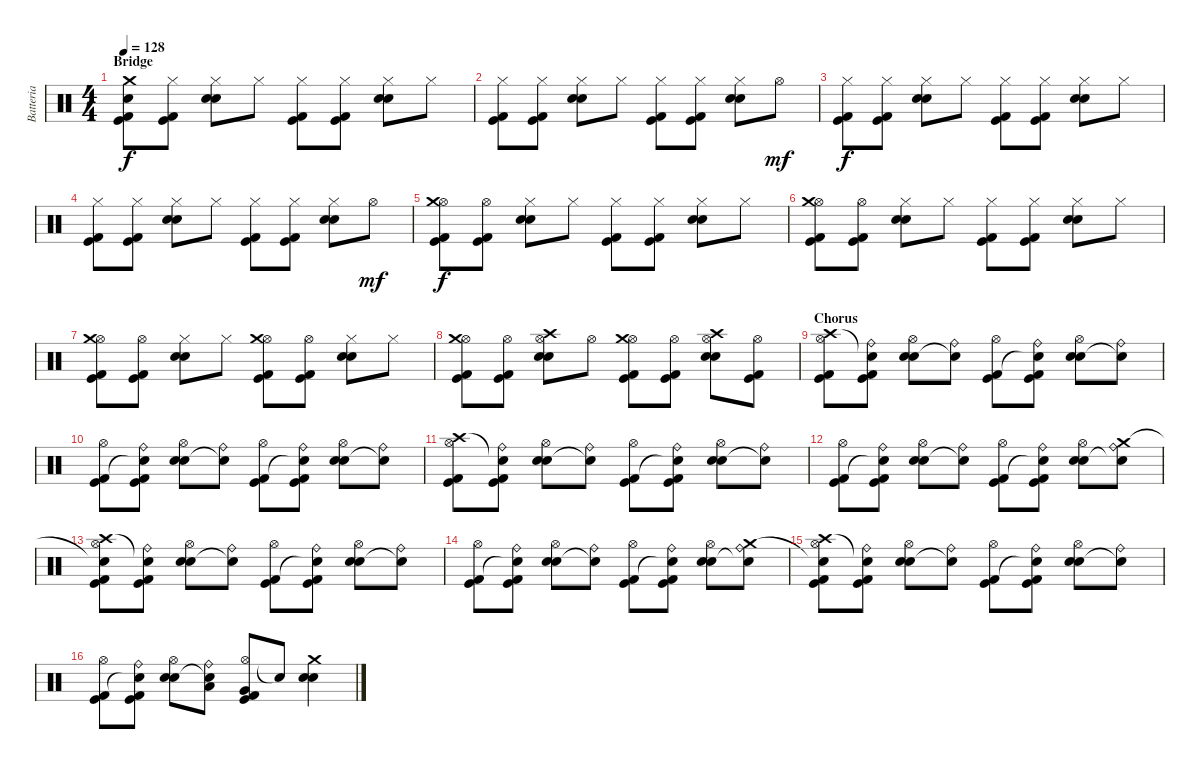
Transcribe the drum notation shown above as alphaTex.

\track ("Batteria" "Batteria") {instrument percussion}
\staff {score}
\articulation defaults
\ts (4 4)
\section ("" "Bridge")
\tempo 128
\clef neutral
\ks c
("Crash medium (hit)" "Snare (hit)"{t} "Kick (hit) 2" "Kick (hit)").8{dy f} ("Hi-Hat (closed)" "Kick (hit) 2" "Kick (hit)").8 ("Hi-Hat (closed)" "Electric Snare (hit)" "Electric Snare (hit)").8 "Hi-Hat (closed)".8 ("Hi-Hat (closed)" "Kick (hit) 2" "Kick (hit)").8 ("Hi-Hat (closed)" "Kick (hit) 2" "Kick (hit)").8 ("Hi-Hat (closed)" "Electric Snare (hit)" "Electric Snare (hit)").8 "Hi-Hat (closed)".8 |
("Hi-Hat (closed)" "Kick (hit) 2" "Kick (hit)").8 ("Hi-Hat (closed)" "Kick (hit) 2" "Kick (hit)").8 ("Hi-Hat (closed)" "Electric Snare (hit)" "Electric Snare (hit)").8 "Hi-Hat (closed)".8 ("Hi-Hat (closed)" "Kick (hit) 2" "Kick (hit)").8 ("Hi-Hat (closed)" "Kick (hit) 2" "Kick (hit)").8 ("Hi-Hat (closed)" "Electric Snare (hit)" "Electric Snare (hit)").8 "Hi-Hat (open)".8{dy mf} |
("Hi-Hat (closed)" "Kick (hit) 2" "Kick (hit)").8{dy f} ("Hi-Hat (closed)" "Kick (hit) 2" "Kick (hit)").8 ("Hi-Hat (closed)" "Electric Snare (hit)" "Electric Snare (hit)").8 "Hi-Hat (closed)".8 ("Hi-Hat (closed)" "Kick (hit) 2" "Kick (hit)").8 ("Hi-Hat (closed)" "Kick (hit) 2" "Kick (hit)").8 ("Hi-Hat (closed)" "Electric Snare (hit)" "Electric Snare (hit)").8 "Hi-Hat (closed)".8 |
("Hi-Hat (closed)" "Kick (hit) 2" "Kick (hit)").8 ("Hi-Hat (closed)" "Kick (hit) 2" "Kick (hit)").8 ("Hi-Hat (closed)" "Electric Snare (hit)" "Electric Snare (hit)").8 "Hi-Hat (closed)".8 ("Hi-Hat (closed)" "Kick (hit) 2" "Kick (hit)").8 ("Hi-Hat (closed)" "Kick (hit) 2" "Kick (hit)").8 ("Hi-Hat (closed)" "Electric Snare (hit)" "Electric Snare (hit)").8 "Hi-Hat (open)".8{dy mf} |
("Hi-Hat (open)" "Crash medium (hit)" "Kick (hit) 2" "Kick (hit)").8{dy f} ("Hi-Hat (open)" "Kick (hit) 2" "Kick (hit)").8 ("Hi-Hat (closed)" "Electric Snare (hit)" "Electric Snare (hit)").8 "Hi-Hat (closed)".8 ("Hi-Hat (closed)" "Kick (hit) 2" "Kick (hit)").8 ("Hi-Hat (closed)" "Kick (hit) 2" "Kick (hit)").8 ("Hi-Hat (closed)" "Electric Snare (hit)" "Electric Snare (hit)").8 "Hi-Hat (closed)".8 |
("Hi-Hat (open)" "Crash medium (hit)" "Kick (hit) 2" "Kick (hit)").8 ("Hi-Hat (open)" "Kick (hit) 2" "Kick (hit)").8 ("Hi-Hat (closed)" "Electric Snare (hit)" "Electric Snare (hit)").8 "Hi-Hat (closed)".8 ("Hi-Hat (closed)" "Kick (hit) 2" "Kick (hit)").8 ("Hi-Hat (closed)" "Kick (hit) 2" "Kick (hit)").8 ("Hi-Hat (closed)" "Electric Snare (hit)" "Electric Snare (hit)").8 "Hi-Hat (closed)".8 |
("Hi-Hat (open)" "Crash medium (hit)" "Kick (hit) 2" "Kick (hit)").8 ("Hi-Hat (open)" "Kick (hit) 2" "Kick (hit)").8 ("Hi-Hat (closed)" "Electric Snare (hit)" "Electric Snare (hit)").8 "Hi-Hat (closed)".8 ("Hi-Hat (open)" "Crash medium (hit)" "Kick (hit) 2" "Kick (hit)").8 ("Hi-Hat (open)" "Kick (hit) 2" "Kick (hit)").8 ("Hi-Hat (closed)" "Electric Snare (hit)" "Electric Snare (hit)").8 "Hi-Hat (closed)".8 |
("Hi-Hat (open)" "Crash medium (hit)" "Kick (hit) 2" "Kick (hit)").8 ("Hi-Hat (open)" "Kick (hit) 2" "Kick (hit)").8 ("Hi-Hat (open)" "Crash high (hit)" "Electric Snare (hit)" "Electric Snare (hit)").8 "Hi-Hat (open)".8 ("Hi-Hat (open)" "Crash medium (hit)" "Kick (hit) 2" "Kick (hit)").8 ("Hi-Hat (open)" "Kick (hit) 2" "Kick (hit)").8 ("Hi-Hat (open)" "Crash high (hit)" "Electric Snare (hit)" "Electric Snare (hit)").8 ("Hi-Hat (open)" "Kick (hit) 2" "Kick (hit)").8 |
\section ("" "Chorus")
("Hi-Hat (open)" "Crash high (hit)" "Kick (hit) 2" "Kick (hit)").8 ("Ride (bell)" "Snare (hit)"{t} "Kick (hit) 2" "Kick (hit)").8 ("Hi-Hat (open)" "Electric Snare (hit)" "Electric Snare (hit)").8 ("Ride (bell)" "Snare (hit)"{t}).8 ("Hi-Hat (open)" "Kick (hit) 2" "Kick (hit)").8 ("Ride (bell)" "Snare (hit)"{t} "Kick (hit) 2" "Kick (hit)").8 ("Hi-Hat (open)" "Electric Snare (hit)" "Electric Snare (hit)").8 ("Ride (bell)" "Snare (hit)"{t}).8 |
("Hi-Hat (open)" "Kick (hit) 2" "Kick (hit)").8 ("Ride (bell)" "Snare (hit)"{t} "Kick (hit) 2" "Kick (hit)").8 ("Hi-Hat (open)" "Electric Snare (hit)" "Electric Snare (hit)").8 ("Ride (bell)" "Snare (hit)"{t}).8 ("Hi-Hat (open)" "Kick (hit) 2" "Kick (hit)").8 ("Ride (bell)" "Snare (hit)"{t} "Kick (hit) 2" "Kick (hit)").8 ("Hi-Hat (open)" "Electric Snare (hit)" "Electric Snare (hit)").8 ("Ride (bell)" "Snare (hit)"{t}).8 |
("Hi-Hat (open)" "Crash high (hit)" "Kick (hit) 2" "Kick (hit)").8 ("Ride (bell)" "Snare (hit)"{t} "Kick (hit) 2" "Kick (hit)").8 ("Hi-Hat (open)" "Electric Snare (hit)" "Electric Snare (hit)").8 ("Ride (bell)" "Snare (hit)"{t}).8 ("Hi-Hat (open)" "Kick (hit) 2" "Kick (hit)").8 ("Ride (bell)" "Snare (hit)"{t} "Kick (hit) 2" "Kick (hit)").8 ("Hi-Hat (open)" "Electric Snare (hit)" "Electric Snare (hit)").8 ("Ride (bell)" "Snare (hit)"{t}).8 |
("Hi-Hat (open)" "Kick (hit) 2" "Kick (hit)").8 ("Ride (bell)" "Snare (hit)"{t} "Kick (hit) 2" "Kick (hit)").8 ("Hi-Hat (open)" "Electric Snare (hit)" "Electric Snare (hit)").8 ("Ride (bell)" "Snare (hit)"{t}).8 ("Hi-Hat (open)" "Kick (hit) 2" "Kick (hit)").8 ("Ride (bell)" "Snare (hit)"{t} "Kick (hit) 2" "Kick (hit)").8 ("Hi-Hat (open)" "Electric Snare (hit)" "Electric Snare (hit)").8 ("Ride (bell)" "Snare (hit)"{t} "Crash medium (hit)").8 |
("Hi-Hat (open)" "Crash high (hit)" "Snare (hit)"{t} "Kick (hit) 2" "Kick (hit)").8 ("Ride (bell)" "Snare (hit)"{t} "Kick (hit) 2" "Kick (hit)").8 ("Hi-Hat (open)" "Electric Snare (hit)" "Electric Snare (hit)").8 ("Ride (bell)" "Snare (hit)"{t}).8 ("Hi-Hat (open)" "Kick (hit) 2" "Kick (hit)").8 ("Ride (bell)" "Snare (hit)"{t} "Kick (hit) 2" "Kick (hit)").8 ("Hi-Hat (open)" "Electric Snare (hit)" "Electric Snare (hit)").8 ("Ride (bell)" "Snare (hit)"{t}).8 |
("Hi-Hat (open)" "Kick (hit) 2" "Kick (hit)").8 ("Ride (bell)" "Snare (hit)"{t} "Kick (hit) 2" "Kick (hit)").8 ("Hi-Hat (open)" "Electric Snare (hit)" "Electric Snare (hit)").8 ("Ride (bell)" "Snare (hit)"{t}).8 ("Hi-Hat (open)" "Kick (hit) 2" "Kick (hit)").8 ("Ride (bell)" "Snare (hit)"{t} "Kick (hit) 2" "Kick (hit)").8 ("Hi-Hat (open)" "Electric Snare (hit)" "Electric Snare (hit)").8 ("Ride (bell)" "Snare (hit)"{t} "Crash medium (hit)").8 |
("Hi-Hat (open)" "Crash high (hit)" "Snare (hit)"{t} "Kick (hit) 2" "Kick (hit)").8 ("Ride (bell)" "Snare (hit)"{t} "Kick (hit) 2" "Kick (hit)").8 ("Hi-Hat (open)" "Electric Snare (hit)" "Electric Snare (hit)").8 ("Ride (bell)" "Snare (hit)"{t}).8 ("Hi-Hat (open)" "Kick (hit) 2" "Kick (hit)").8 ("Ride (bell)" "Snare (hit)"{t} "Kick (hit) 2" "Kick (hit)").8 ("Hi-Hat (open)" "Electric Snare (hit)" "Electric Snare (hit)").8 ("Ride (bell)" "Snare (hit)"{t}).8 |
("Hi-Hat (open)" "Kick (hit) 2" "Kick (hit)").8 ("Ride (bell)" "Snare (hit)"{t} "Kick (hit) 2" "Kick (hit)").8 ("Hi-Hat (open)" "Electric Snare (hit)" "Electric Snare (hit)").8 ("Ride (bell)" "Snare (hit)"{t} "Low Tom (hit)").8 ("Hi-Hat (open)" "Very Low Tom (hit)" "Kick (hit) 2" "Kick (hit)").8 "Snare (hit)"{t}.8 ("Crash medium (hit)" "Electric Snare (hit)" "Electric Snare (hit)").4
